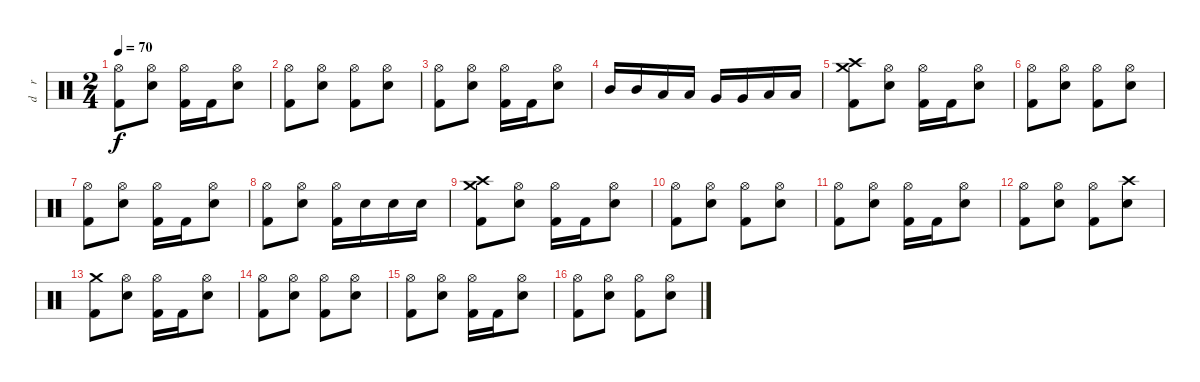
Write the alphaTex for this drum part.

\track ("d    r     u    m    s" "d    r    ") {instrument percussion}
\staff {score}
\articulation defaults
\ts (2 4)
\tempo 70
\clef neutral
\ks c
("Hi-Hat (open)" "Kick (hit) 2").8{dy f} ("Hi-Hat (open)" "Electric Snare (hit)").8 ("Hi-Hat (open)" "Kick (hit) 2").16 "Kick (hit) 2".16 ("Hi-Hat (open)" "Electric Snare (hit)").8 |
("Hi-Hat (open)" "Kick (hit) 2").8 ("Hi-Hat (open)" "Electric Snare (hit)").8 ("Hi-Hat (open)" "Kick (hit) 2").8 ("Hi-Hat (open)" "Electric Snare (hit)").8 |
("Hi-Hat (open)" "Kick (hit) 2").8 ("Hi-Hat (open)" "Electric Snare (hit)").8 ("Hi-Hat (open)" "Kick (hit) 2").16 "Kick (hit) 2".16 ("Hi-Hat (open)" "Electric Snare (hit)").8 |
"Mid Tom (hit)".16 "Mid Tom (hit)".16 "Low Tom (hit)".16 "Low Tom (hit)".16 "Very Low Tom (hit)".16 "Very Low Tom (hit)".16 "Low Floor Tom (hit)".16 "Low Floor Tom (hit)".16 |
("Crash high (hit)" "Crash medium (hit)" "Kick (hit) 2").8 ("Hi-Hat (open)" "Electric Snare (hit)").8 ("Hi-Hat (open)" "Kick (hit) 2").16 "Kick (hit) 2".16 ("Hi-Hat (open)" "Electric Snare (hit)").8 |
("Hi-Hat (open)" "Kick (hit) 2").8 ("Hi-Hat (open)" "Electric Snare (hit)").8 ("Hi-Hat (open)" "Kick (hit) 2").8 ("Hi-Hat (open)" "Electric Snare (hit)").8 |
("Hi-Hat (open)" "Kick (hit) 2").8 ("Hi-Hat (open)" "Electric Snare (hit)").8 ("Hi-Hat (open)" "Kick (hit) 2").16 "Kick (hit) 2".16 ("Hi-Hat (open)" "Electric Snare (hit)").8 |
("Hi-Hat (open)" "Kick (hit) 2").8 ("Hi-Hat (open)" "Electric Snare (hit)").8 ("Hi-Hat (open)" "Kick (hit) 2").16 "Electric Snare (hit)".16 "Electric Snare (hit)".16 "Electric Snare (hit)".16 |
("Crash high (hit)" "Crash medium (hit)" "Kick (hit) 2").8 ("Hi-Hat (open)" "Electric Snare (hit)").8 ("Hi-Hat (open)" "Kick (hit) 2").16 "Kick (hit) 2".16 ("Hi-Hat (open)" "Electric Snare (hit)").8 |
("Hi-Hat (open)" "Kick (hit) 2").8 ("Hi-Hat (open)" "Electric Snare (hit)").8 ("Hi-Hat (open)" "Kick (hit) 2").8 ("Hi-Hat (open)" "Electric Snare (hit)").8 |
("Hi-Hat (open)" "Kick (hit) 2").8 ("Hi-Hat (open)" "Electric Snare (hit)").8 ("Hi-Hat (open)" "Kick (hit) 2").16 "Kick (hit) 2".16 ("Hi-Hat (open)" "Electric Snare (hit)").8 |
("Hi-Hat (open)" "Kick (hit) 2").8 ("Hi-Hat (open)" "Electric Snare (hit)").8 ("Hi-Hat (open)" "Kick (hit) 2").8 ("Crash high (hit)" "Electric Snare (hit)").8 |
("Crash medium (hit)" "Kick (hit) 2").8 ("Hi-Hat (open)" "Electric Snare (hit)").8 ("Hi-Hat (open)" "Kick (hit) 2").16 "Kick (hit) 2".16 ("Hi-Hat (open)" "Electric Snare (hit)").8 |
("Hi-Hat (open)" "Kick (hit) 2").8 ("Hi-Hat (open)" "Electric Snare (hit)").8 ("Hi-Hat (open)" "Kick (hit) 2").8 ("Hi-Hat (open)" "Electric Snare (hit)").8 |
("Hi-Hat (open)" "Kick (hit) 2").8 ("Hi-Hat (open)" "Electric Snare (hit)").8 ("Hi-Hat (open)" "Kick (hit) 2").16 "Kick (hit) 2".16 ("Hi-Hat (open)" "Electric Snare (hit)").8 |
("Hi-Hat (open)" "Kick (hit) 2").8 ("Hi-Hat (open)" "Electric Snare (hit)").8 ("Hi-Hat (open)" "Kick (hit) 2").8 ("Hi-Hat (open)" "Electric Snare (hit)").8
